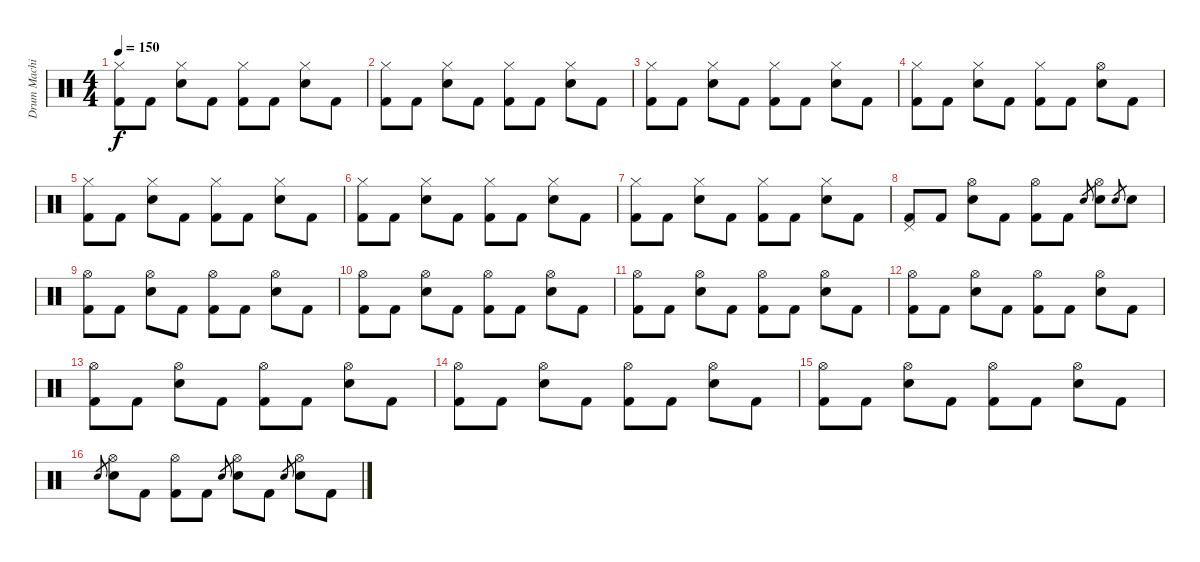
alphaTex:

\track ("Drum Machine" "Drum Machi") {instrument percussion}
\staff {score}
\articulation defaults
\ts (4 4)
\tempo 150
\clef neutral
\ks c
("Kick (hit) 2" "Hi-Hat (closed)").8{dy f} "Kick (hit) 2".8 ("Electric Snare (hit)" "Hi-Hat (closed)").8 "Kick (hit) 2".8 ("Kick (hit) 2" "Hi-Hat (closed)").8 "Kick (hit) 2".8 ("Electric Snare (hit)" "Hi-Hat (closed)").8 "Kick (hit) 2".8 |
("Kick (hit) 2" "Hi-Hat (closed)").8 "Kick (hit) 2".8 ("Electric Snare (hit)" "Hi-Hat (closed)").8 "Kick (hit) 2".8 ("Kick (hit) 2" "Hi-Hat (closed)").8 "Kick (hit) 2".8 ("Electric Snare (hit)" "Hi-Hat (closed)").8 "Kick (hit) 2".8 |
("Kick (hit) 2" "Hi-Hat (closed)").8 "Kick (hit) 2".8 ("Electric Snare (hit)" "Hi-Hat (closed)").8 "Kick (hit) 2".8 ("Kick (hit) 2" "Hi-Hat (closed)").8 "Kick (hit) 2".8 ("Electric Snare (hit)" "Hi-Hat (closed)").8 "Kick (hit) 2".8 |
("Kick (hit) 2" "Hi-Hat (closed)").8 "Kick (hit) 2".8 ("Electric Snare (hit)" "Hi-Hat (closed)").8 "Kick (hit) 2".8 ("Kick (hit) 2" "Hi-Hat (closed)").8 "Kick (hit) 2".8 ("Electric Snare (hit)" "Hi-Hat (open)").8 "Kick (hit) 2".8 |
("Kick (hit) 2" "Hi-Hat (closed)").8 "Kick (hit) 2".8 ("Electric Snare (hit)" "Hi-Hat (closed)").8 "Kick (hit) 2".8 ("Kick (hit) 2" "Hi-Hat (closed)").8 "Kick (hit) 2".8 ("Electric Snare (hit)" "Hi-Hat (closed)").8 "Kick (hit) 2".8 |
("Kick (hit) 2" "Hi-Hat (closed)").8 "Kick (hit) 2".8 ("Electric Snare (hit)" "Hi-Hat (closed)").8 "Kick (hit) 2".8 ("Kick (hit) 2" "Hi-Hat (closed)").8 "Kick (hit) 2".8 ("Electric Snare (hit)" "Hi-Hat (closed)").8 "Kick (hit) 2".8 |
("Kick (hit) 2" "Hi-Hat (closed)").8 "Kick (hit) 2".8 ("Electric Snare (hit)" "Hi-Hat (closed)").8 "Kick (hit) 2".8 ("Kick (hit) 2" "Hi-Hat (closed)").8 "Kick (hit) 2".8 ("Electric Snare (hit)" "Hi-Hat (closed)").8 "Kick (hit) 2".8 |
("Kick (hit) 2" "Pedal Hi-Hat (hit)").8 "Kick (hit) 2".8 ("Electric Snare (hit)" "Hi-Hat (open)").8 "Kick (hit) 2".8 ("Kick (hit) 2" "Hi-Hat (open)").8 "Kick (hit) 2".8 "Electric Snare (hit)".8{gr} ("Electric Snare (hit)" "Hi-Hat (open)").8 "Electric Snare (hit)".8{gr} "Electric Snare (hit)".8 |
("Kick (hit) 2" "Hi-Hat (open)").8 "Kick (hit) 2".8 ("Electric Snare (hit)" "Hi-Hat (open)").8 "Kick (hit) 2".8 ("Kick (hit) 2" "Hi-Hat (open)").8 "Kick (hit) 2".8 ("Electric Snare (hit)" "Hi-Hat (open)").8 "Kick (hit) 2".8 |
("Kick (hit) 2" "Hi-Hat (open)").8 "Kick (hit) 2".8 ("Electric Snare (hit)" "Hi-Hat (open)").8 "Kick (hit) 2".8 ("Kick (hit) 2" "Hi-Hat (open)").8 "Kick (hit) 2".8 ("Electric Snare (hit)" "Hi-Hat (open)").8 "Kick (hit) 2".8 |
("Kick (hit) 2" "Hi-Hat (open)").8 "Kick (hit) 2".8 ("Electric Snare (hit)" "Hi-Hat (open)").8 "Kick (hit) 2".8 ("Kick (hit) 2" "Hi-Hat (open)").8 "Kick (hit) 2".8 ("Electric Snare (hit)" "Hi-Hat (open)").8 "Kick (hit) 2".8 |
("Kick (hit) 2" "Hi-Hat (open)").8 "Kick (hit) 2".8 ("Electric Snare (hit)" "Hi-Hat (open)").8 "Kick (hit) 2".8 ("Kick (hit) 2" "Hi-Hat (open)").8 "Kick (hit) 2".8 ("Electric Snare (hit)" "Hi-Hat (open)").8 "Kick (hit) 2".8 |
("Kick (hit) 2" "Hi-Hat (open)").8 "Kick (hit) 2".8 ("Electric Snare (hit)" "Hi-Hat (open)").8 "Kick (hit) 2".8 ("Kick (hit) 2" "Hi-Hat (open)").8 "Kick (hit) 2".8 ("Electric Snare (hit)" "Hi-Hat (open)").8 "Kick (hit) 2".8 |
("Kick (hit) 2" "Hi-Hat (open)").8 "Kick (hit) 2".8 ("Electric Snare (hit)" "Hi-Hat (open)").8 "Kick (hit) 2".8 ("Kick (hit) 2" "Hi-Hat (open)").8 "Kick (hit) 2".8 ("Electric Snare (hit)" "Hi-Hat (open)").8 "Kick (hit) 2".8 |
("Kick (hit) 2" "Hi-Hat (open)").8 "Kick (hit) 2".8 ("Electric Snare (hit)" "Hi-Hat (open)").8 "Kick (hit) 2".8 ("Kick (hit) 2" "Hi-Hat (open)").8 "Kick (hit) 2".8 ("Electric Snare (hit)" "Hi-Hat (open)").8 "Kick (hit) 2".8 |
"Electric Snare (hit)".8{gr} ("Electric Snare (hit)" "Hi-Hat (open)").8 "Kick (hit) 2".8 ("Kick (hit) 2" "Hi-Hat (open)").8 "Kick (hit) 2".8 "Electric Snare (hit)".8{gr} ("Electric Snare (hit)" "Hi-Hat (open)").8 "Kick (hit) 2".8 "Electric Snare (hit)".8{gr} ("Electric Snare (hit)" "Hi-Hat (open)").8 "Kick (hit) 2".8
